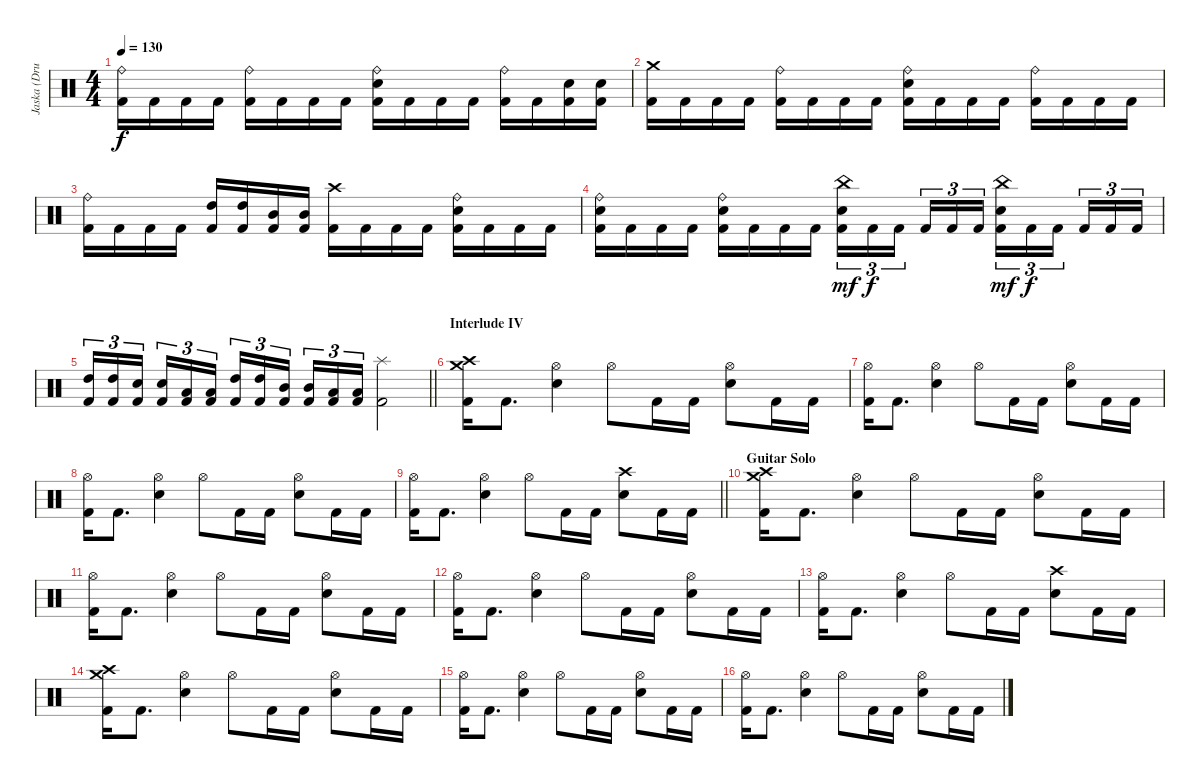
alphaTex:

\track ("Jaska (Drums)" "Jaska (Dru") {instrument percussion}
\staff {score}
\articulation defaults
\ts (4 4)
\tempo 130
\clef neutral
\ks c
("Ride (bell)" "Kick (hit) 2").16{dy f} "Kick (hit) 2".16 "Kick (hit) 2".16 "Kick (hit) 2".16 ("Ride (bell)" "Kick (hit) 2").16 "Kick (hit) 2".16 "Kick (hit) 2".16 "Kick (hit) 2".16 ("Ride (bell)" "Electric Snare (hit)" "Kick (hit) 2").16 "Kick (hit) 2".16 "Kick (hit) 2".16 "Kick (hit) 2".16 ("Ride (bell)" "Kick (hit) 2").16 "Kick (hit) 2".16 ("Electric Snare (hit)" "Kick (hit) 2").16 ("Electric Snare (hit)" "Kick (hit) 2").16 |
("Crash medium (hit)" "Kick (hit) 2").16 "Kick (hit) 2".16 "Kick (hit) 2".16 "Kick (hit) 2".16 ("Ride (bell)" "Kick (hit) 2").16 "Kick (hit) 2".16 "Kick (hit) 2".16 "Kick (hit) 2".16 ("Ride (bell)" "Electric Snare (hit)" "Kick (hit) 2").16 "Kick (hit) 2".16 "Kick (hit) 2".16 "Kick (hit) 2".16 ("Ride (bell)" "Kick (hit) 2").16 "Kick (hit) 2".16 "Kick (hit) 2".16 "Kick (hit) 2".16 |
("Ride (bell)" "Kick (hit) 2").16 "Kick (hit) 2".16 "Kick (hit) 2".16 "Kick (hit) 2".16 ("High Tom (hit)" "Kick (hit) 2").16 ("High Tom (hit)" "Kick (hit) 2").16 ("Mid Tom (hit)" "Kick (hit) 2").16 ("Mid Tom (hit)" "Kick (hit) 2").16 ("Crash high (hit)" "Kick (hit) 2").16 "Kick (hit) 2".16 "Kick (hit) 2".16 "Kick (hit) 2".16 ("Ride (bell)" "Electric Snare (hit)" "Kick (hit) 2").16 "Kick (hit) 2".16 "Kick (hit) 2".16 "Kick (hit) 2".16 |
("Ride (bell)" "Electric Snare (hit)" "Kick (hit) 2").16 "Kick (hit) 2".16 "Kick (hit) 2".16 "Kick (hit) 2".16 ("Ride (bell)" "Electric Snare (hit)" "Kick (hit) 2").16 "Kick (hit) 2".16 "Kick (hit) 2".16 "Kick (hit) 2".16 ("China (hit)" "Electric Snare (hit)" "Kick (hit) 2").16{tu (3 2) dy mf} "Kick (hit) 2".16{tu (3 2) dy f} "Kick (hit) 2".16{tu (3 2) beam splitsecondary} "Kick (hit) 2".16{tu (3 2)} "Kick (hit) 2".16{tu (3 2)} "Kick (hit) 2".16{tu (3 2)} ("China (hit)" "Electric Snare (hit)" "Kick (hit) 2").16{tu (3 2) dy mf} "Kick (hit) 2".16{tu (3 2) dy f} "Kick (hit) 2".16{tu (3 2) beam splitsecondary} "Kick (hit) 2".16{tu (3 2)} "Kick (hit) 2".16{tu (3 2)} "Kick (hit) 2".16{tu (3 2)} |
\barLineRight lightlight
("High Tom (hit)" "Kick (hit) 2").16{tu (3 2)} ("High Tom (hit)" "Kick (hit) 2").16{tu (3 2)} ("Electric Snare (hit)" "Kick (hit) 2").16{tu (3 2) beam splitsecondary} ("Electric Snare (hit)" "Kick (hit) 2").16{tu (3 2)} ("Low Tom (hit)" "Kick (hit) 2").16{tu (3 2)} ("Low Tom (hit)" "Kick (hit) 2").16{tu (3 2)} ("High Tom (hit)" "Kick (hit) 2").16{tu (3 2)} ("High Tom (hit)" "Kick (hit) 2").16{tu (3 2)} ("Mid Tom (hit)" "Kick (hit) 2").16{tu (3 2) beam splitsecondary} ("Mid Tom (hit)" "Kick (hit) 2").16{tu (3 2)} ("Low Tom (hit)" "Kick (hit) 2").16{tu (3 2)} ("Low Tom (hit)" "Kick (hit) 2").16{tu (3 2)} ("Splash (hit)" "Kick (hit) 2").2 |
\section ("" "Interlude IV")
("Crash medium (hit)" "Crash high (hit)" "Kick (hit) 2").16 "Kick (hit) 2".8{d} ("Hi-Hat (open)" "Electric Snare (hit)").4 "Hi-Hat (open)".8 "Kick (hit) 2".16 "Kick (hit) 2".16 ("Hi-Hat (open)" "Electric Snare (hit)").8 "Kick (hit) 2".16 "Kick (hit) 2".16 |
("Hi-Hat (open)" "Kick (hit) 2").16 "Kick (hit) 2".8{d} ("Hi-Hat (open)" "Electric Snare (hit)").4 "Hi-Hat (open)".8 "Kick (hit) 2".16 "Kick (hit) 2".16 ("Hi-Hat (open)" "Electric Snare (hit)").8 "Kick (hit) 2".16 "Kick (hit) 2".16 |
("Hi-Hat (open)" "Kick (hit) 2").16 "Kick (hit) 2".8{d} ("Hi-Hat (open)" "Electric Snare (hit)").4 "Hi-Hat (open)".8 "Kick (hit) 2".16 "Kick (hit) 2".16 ("Hi-Hat (open)" "Electric Snare (hit)").8 "Kick (hit) 2".16 "Kick (hit) 2".16 |
\barLineRight lightlight
("Hi-Hat (open)" "Kick (hit) 2").16 "Kick (hit) 2".8{d} ("Hi-Hat (open)" "Electric Snare (hit)").4 "Hi-Hat (open)".8 "Kick (hit) 2".16 "Kick (hit) 2".16 ("Crash high (hit)" "Electric Snare (hit)").8 "Kick (hit) 2".16 "Kick (hit) 2".16 |
\section ("" "Guitar Solo")
("Crash medium (hit)" "Crash high (hit)" "Kick (hit) 2").16 "Kick (hit) 2".8{d} ("Hi-Hat (open)" "Electric Snare (hit)").4 "Hi-Hat (open)".8 "Kick (hit) 2".16 "Kick (hit) 2".16 ("Hi-Hat (open)" "Electric Snare (hit)").8 "Kick (hit) 2".16 "Kick (hit) 2".16 |
("Hi-Hat (open)" "Kick (hit) 2").16 "Kick (hit) 2".8{d} ("Hi-Hat (open)" "Electric Snare (hit)").4 "Hi-Hat (open)".8 "Kick (hit) 2".16 "Kick (hit) 2".16 ("Hi-Hat (open)" "Electric Snare (hit)").8 "Kick (hit) 2".16 "Kick (hit) 2".16 |
("Hi-Hat (open)" "Kick (hit) 2").16 "Kick (hit) 2".8{d} ("Hi-Hat (open)" "Electric Snare (hit)").4 "Hi-Hat (open)".8 "Kick (hit) 2".16 "Kick (hit) 2".16 ("Hi-Hat (open)" "Electric Snare (hit)").8 "Kick (hit) 2".16 "Kick (hit) 2".16 |
("Hi-Hat (open)" "Kick (hit) 2").16 "Kick (hit) 2".8{d} ("Hi-Hat (open)" "Electric Snare (hit)").4 "Hi-Hat (open)".8 "Kick (hit) 2".16 "Kick (hit) 2".16 ("Crash high (hit)" "Electric Snare (hit)").8 "Kick (hit) 2".16 "Kick (hit) 2".16 |
("Crash medium (hit)" "Crash high (hit)" "Kick (hit) 2").16 "Kick (hit) 2".8{d} ("Hi-Hat (open)" "Electric Snare (hit)").4 "Hi-Hat (open)".8 "Kick (hit) 2".16 "Kick (hit) 2".16 ("Hi-Hat (open)" "Electric Snare (hit)").8 "Kick (hit) 2".16 "Kick (hit) 2".16 |
("Hi-Hat (open)" "Kick (hit) 2").16 "Kick (hit) 2".8{d} ("Hi-Hat (open)" "Electric Snare (hit)").4 "Hi-Hat (open)".8 "Kick (hit) 2".16 "Kick (hit) 2".16 ("Hi-Hat (open)" "Electric Snare (hit)").8 "Kick (hit) 2".16 "Kick (hit) 2".16 |
("Hi-Hat (open)" "Kick (hit) 2").16 "Kick (hit) 2".8{d} ("Hi-Hat (open)" "Electric Snare (hit)").4 "Hi-Hat (open)".8 "Kick (hit) 2".16 "Kick (hit) 2".16 ("Hi-Hat (open)" "Electric Snare (hit)").8 "Kick (hit) 2".16 "Kick (hit) 2".16
